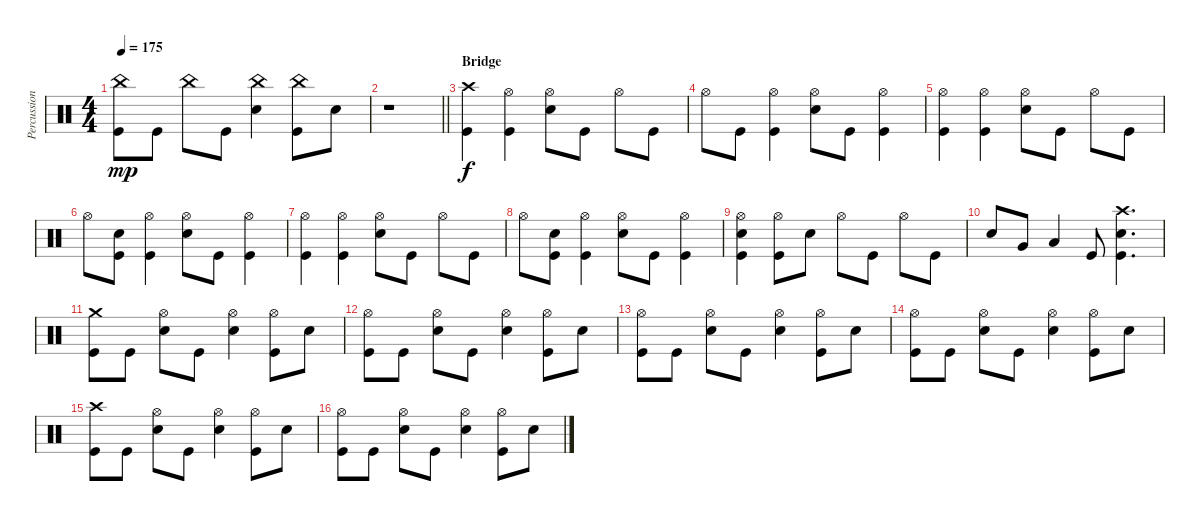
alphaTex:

\track ("Percussion" "Percussion") {instrument percussion}
\staff {score}
\articulation defaults
\ts (4 4)
\tempo 175
\clef neutral
\ks c
("China (hit)" "Kick (hit)").8{dy mp} "Kick (hit)".8 "China (hit)".8 "Kick (hit)".8 ("China (hit)" "Electric Snare (hit)").4 ("China (hit)" "Kick (hit)").8 "Electric Snare (hit)".8 |
\barLineRight lightlight
r.1 |
\section ("" "Bridge")
("Crash high (hit)" "Kick (hit)").4{dy f balance 8} ("Hi-Hat (open)" "Kick (hit)").4 ("Hi-Hat (open)" "Electric Snare (hit)").8 "Kick (hit)".8 "Hi-Hat (open)".8 "Kick (hit)".8 |
"Hi-Hat (open)".8 "Kick (hit)".8 ("Hi-Hat (open)" "Kick (hit)").4 ("Hi-Hat (open)" "Electric Snare (hit)").8 "Kick (hit)".8 ("Hi-Hat (open)" "Kick (hit)").4 |
("Hi-Hat (open)" "Kick (hit)").4 ("Hi-Hat (open)" "Kick (hit)").4 ("Hi-Hat (open)" "Electric Snare (hit)").8 "Kick (hit)".8 "Hi-Hat (open)".8 "Kick (hit)".8 |
"Hi-Hat (open)".8 ("Electric Snare (hit)" "Kick (hit)").8 ("Hi-Hat (open)" "Kick (hit)").4 ("Hi-Hat (open)" "Electric Snare (hit)").8 "Kick (hit)".8 ("Hi-Hat (open)" "Kick (hit)").4 |
("Hi-Hat (open)" "Kick (hit)").4 ("Hi-Hat (open)" "Kick (hit)").4 ("Hi-Hat (open)" "Electric Snare (hit)").8 "Kick (hit)".8 "Hi-Hat (open)".8 "Kick (hit)".8 |
"Hi-Hat (open)".8 ("Electric Snare (hit)" "Kick (hit)").8 ("Hi-Hat (open)" "Kick (hit)").4 ("Hi-Hat (open)" "Electric Snare (hit)").8 "Kick (hit)".8 ("Hi-Hat (open)" "Kick (hit)").4 |
("Hi-Hat (open)" "Electric Snare (hit)" "Kick (hit)").4 ("Hi-Hat (open)" "Kick (hit)").8 "Electric Snare (hit)".8 "Hi-Hat (open)".8 "Kick (hit)".8 "Hi-Hat (open)".8 "Kick (hit)".8 |
"Electric Snare (hit)".8 "Very Low Tom (hit)".8 "Low Floor Tom (hit)".4 "Kick (hit)".8 ("Crash high (hit)" "Electric Snare (hit)" "Kick (hit)").4{d} |
("Crash medium (hit)" "Kick (hit)").8 "Kick (hit)".8 ("Hi-Hat (open)" "Electric Snare (hit)").8 "Kick (hit)".8 ("Hi-Hat (open)" "Electric Snare (hit)").4 ("Hi-Hat (open)" "Kick (hit)").8 "Electric Snare (hit)".8 |
("Hi-Hat (open)" "Kick (hit)").8 "Kick (hit)".8 ("Hi-Hat (open)" "Electric Snare (hit)").8 "Kick (hit)".8 ("Hi-Hat (open)" "Electric Snare (hit)").4 ("Hi-Hat (open)" "Kick (hit)").8 "Electric Snare (hit)".8 |
("Hi-Hat (open)" "Kick (hit)").8 "Kick (hit)".8 ("Hi-Hat (open)" "Electric Snare (hit)").8 "Kick (hit)".8 ("Hi-Hat (open)" "Electric Snare (hit)").4 ("Hi-Hat (open)" "Kick (hit)").8 "Electric Snare (hit)".8 |
("Hi-Hat (open)" "Kick (hit)").8 "Kick (hit)".8 ("Hi-Hat (open)" "Electric Snare (hit)").8 "Kick (hit)".8 ("Hi-Hat (open)" "Electric Snare (hit)").4 ("Hi-Hat (open)" "Kick (hit)").8 "Electric Snare (hit)".8 |
("Crash high (hit)" "Kick (hit)").8 "Kick (hit)".8 ("Hi-Hat (open)" "Electric Snare (hit)").8 "Kick (hit)".8 ("Hi-Hat (open)" "Electric Snare (hit)").4 ("Hi-Hat (open)" "Kick (hit)").8 "Electric Snare (hit)".8 |
("Hi-Hat (open)" "Kick (hit)").8 "Kick (hit)".8 ("Hi-Hat (open)" "Electric Snare (hit)").8 "Kick (hit)".8 ("Hi-Hat (open)" "Electric Snare (hit)").4 ("Hi-Hat (open)" "Kick (hit)").8 "Electric Snare (hit)".8
